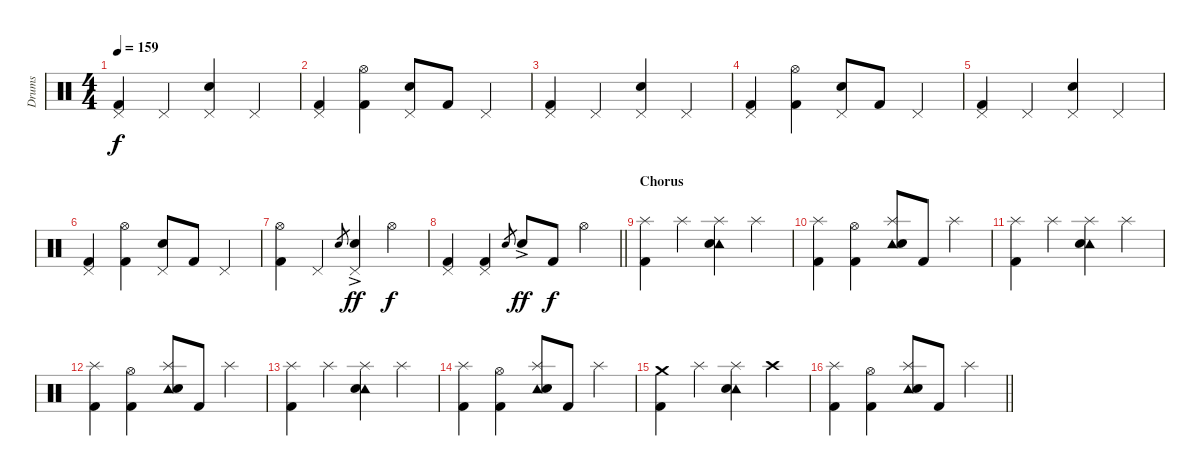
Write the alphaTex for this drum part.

\track ("Drums" "Drums") {instrument percussion}
\staff {score}
\articulation defaults
\ts (4 4)
\tempo 159
\clef neutral
\ks c
("Pedal Hi-Hat (hit)" "Kick (hit) 2").4{dy f} "Pedal Hi-Hat (hit)".4 ("Pedal Hi-Hat (hit)" "Snare (hit) 2").4 "Pedal Hi-Hat (hit)".4 |
("Pedal Hi-Hat (hit)" "Kick (hit) 2").4 ("Hi-Hat (open)" "Kick (hit) 2").4 ("Pedal Hi-Hat (hit)" "Snare (hit) 2").8 "Kick (hit) 2".8 "Pedal Hi-Hat (hit)".4 |
("Pedal Hi-Hat (hit)" "Kick (hit) 2").4 "Pedal Hi-Hat (hit)".4 ("Pedal Hi-Hat (hit)" "Snare (hit) 2").4 "Pedal Hi-Hat (hit)".4 |
("Pedal Hi-Hat (hit)" "Kick (hit) 2").4 ("Hi-Hat (open)" "Kick (hit) 2").4 ("Pedal Hi-Hat (hit)" "Snare (hit) 2").8 "Kick (hit) 2".8 "Pedal Hi-Hat (hit)".4 |
("Pedal Hi-Hat (hit)" "Kick (hit) 2").4 "Pedal Hi-Hat (hit)".4 ("Pedal Hi-Hat (hit)" "Snare (hit) 2").4 "Pedal Hi-Hat (hit)".4 |
("Pedal Hi-Hat (hit)" "Kick (hit) 2").4 ("Hi-Hat (open)" "Kick (hit) 2").4 ("Pedal Hi-Hat (hit)" "Snare (hit) 2").8 "Kick (hit) 2".8 "Pedal Hi-Hat (hit)".4 |
("Hi-Hat (open)" "Kick (hit) 2").4 "Pedal Hi-Hat (hit)".4 "Snare (hit) 2".8{gr} ("Pedal Hi-Hat (hit)" "Snare (hit) 2"{ac}).4{dy ff} "Hi-Hat (open)".4{dy f} |
\barLineRight lightlight
("Pedal Hi-Hat (hit)" "Kick (hit) 2").4 ("Pedal Hi-Hat (hit)" "Kick (hit) 2").4 "Snare (hit) 2".8{gr} "Snare (hit) 2"{ac}.8{dy ff} "Kick (hit) 2".8{dy f} "Hi-Hat (open)".4 |
\section ("" "Chorus")
("Splash (hit)" "Kick (hit) 2").4 "Splash (hit)".4 ("Splash (hit)" "Tambourine (hit)" "Snare (hit) 2").4 "Splash (hit)".4 |
("Splash (hit)" "Kick (hit) 2").4 ("Hi-Hat (open)" "Kick (hit) 2").4 ("Splash (hit)" "Tambourine (hit)" "Snare (hit) 2").8 "Kick (hit) 2".8 "Splash (hit)".4 |
("Splash (hit)" "Kick (hit) 2").4 "Splash (hit)".4 ("Splash (hit)" "Tambourine (hit)" "Snare (hit) 2").4 "Splash (hit)".4 |
("Splash (hit)" "Kick (hit) 2").4 ("Hi-Hat (open)" "Kick (hit) 2").4 ("Splash (hit)" "Tambourine (hit)" "Snare (hit) 2").8 "Kick (hit) 2".8 "Splash (hit)".4 |
("Splash (hit)" "Kick (hit) 2").4 "Splash (hit)".4 ("Splash (hit)" "Tambourine (hit)" "Snare (hit) 2").4 "Splash (hit)".4 |
("Splash (hit)" "Kick (hit) 2").4 ("Hi-Hat (open)" "Kick (hit) 2").4 ("Splash (hit)" "Tambourine (hit)" "Snare (hit) 2").8 "Kick (hit) 2".8 "Splash (hit)".4 |
("Crash medium (hit)" "Kick (hit) 2").4 "Splash (hit)".4 ("Splash (hit)" "Tambourine (hit)" "Snare (hit) 2").4 "Crash high (hit)".4 |
\barLineRight lightlight
("Splash (hit)" "Kick (hit) 2").4 ("Hi-Hat (open)" "Kick (hit) 2").4 ("Splash (hit)" "Tambourine (hit)" "Snare (hit) 2").8 "Kick (hit) 2".8 "Splash (hit)".4
